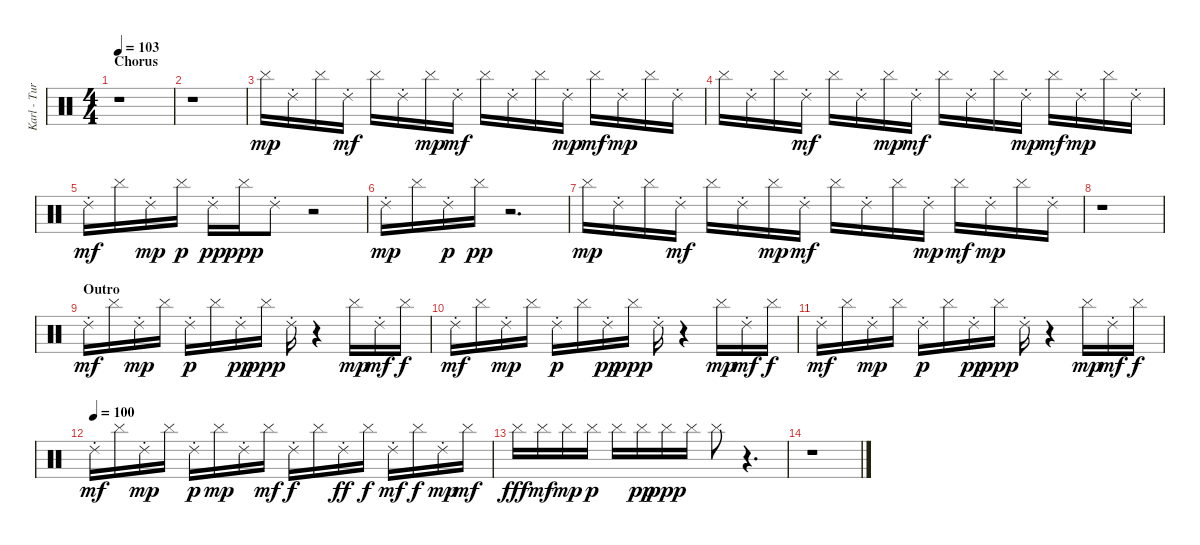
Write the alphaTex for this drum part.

\track ("Karl - Turntables" "Karl - Tur") {instrument percussion}
\staff {score}
\articulation defaults
\ts (4 4)
\section ("" "Chorus")
\tempo 103
\clef neutral
\ks c
r.1{dy p} |
r.1 |
"Cymbal (hit)".16{dy mp} "Ride (choke) 2".16 "Cymbal (hit)".16 "Ride (choke) 2".16{dy mf} "Cymbal (hit)".16 "Ride (choke) 2".16 "Cymbal (hit)".16{dy mp} "Ride (choke) 2".16{dy mf} "Cymbal (hit)".16 "Ride (choke) 2".16 "Cymbal (hit)".16 "Ride (choke) 2".16{dy mp} "Cymbal (hit)".16{dy mf} "Ride (choke) 2".16{dy mp} "Cymbal (hit)".16 "Ride (choke) 2".16 |
"Cymbal (hit)".16 "Ride (choke) 2".16 "Cymbal (hit)".16 "Ride (choke) 2".16{dy mf} "Cymbal (hit)".16 "Ride (choke) 2".16 "Cymbal (hit)".16{dy mp} "Ride (choke) 2".16{dy mf} "Cymbal (hit)".16 "Ride (choke) 2".16 "Cymbal (hit)".16 "Ride (choke) 2".16{dy mp} "Cymbal (hit)".16{dy mf} "Ride (choke) 2".16{dy mp} "Cymbal (hit)".16 "Ride (choke) 2".16 |
"Ride (choke) 2".16{dy mf} "Cymbal (hit)".16 "Ride (choke) 2".16{dy mp} "Cymbal (hit)".16{dy p} "Ride (choke) 2".16{dy pp} "Cymbal (hit)".16{dy ppp} "Ride (choke) 2".8 r.2 |
"Ride (choke) 2".16{dy mp} "Cymbal (hit)".16 "Ride (choke) 2".16{dy p} "Cymbal (hit)".16{dy pp} r.2{d} |
"Cymbal (hit)".16{dy mp} "Ride (choke) 2".16 "Cymbal (hit)".16 "Ride (choke) 2".16{dy mf} "Cymbal (hit)".16 "Ride (choke) 2".16 "Cymbal (hit)".16{dy mp} "Ride (choke) 2".16{dy mf} "Cymbal (hit)".16 "Ride (choke) 2".16 "Cymbal (hit)".16 "Ride (choke) 2".16{dy mp} "Cymbal (hit)".16{dy mf} "Ride (choke) 2".16{dy mp} "Cymbal (hit)".16 "Ride (choke) 2".16 |
r.1 |
\section ("" "Outro")
"Ride (choke) 2".16{dy mf} "Cymbal (hit)".16 "Ride (choke) 2".16{dy mp} "Cymbal (hit)".16 "Ride (choke) 2".16{dy p} "Cymbal (hit)".16 "Ride (choke) 2".16{dy pp} "Cymbal (hit)".16{dy ppp} "Ride (choke) 2".16 r.4 "Cymbal (hit)".16{dy mp} "Ride (choke) 2".16{dy mf} "Cymbal (hit)".16{dy f} |
"Ride (choke) 2".16{dy mf} "Cymbal (hit)".16 "Ride (choke) 2".16{dy mp} "Cymbal (hit)".16 "Ride (choke) 2".16{dy p} "Cymbal (hit)".16 "Ride (choke) 2".16{dy pp} "Cymbal (hit)".16{dy ppp} "Ride (choke) 2".16 r.4 "Cymbal (hit)".16{dy mp} "Ride (choke) 2".16{dy mf} "Cymbal (hit)".16{dy f} |
"Ride (choke) 2".16{dy mf} "Cymbal (hit)".16 "Ride (choke) 2".16{dy mp} "Cymbal (hit)".16 "Ride (choke) 2".16{dy p} "Cymbal (hit)".16 "Ride (choke) 2".16{dy pp} "Cymbal (hit)".16{dy ppp} "Ride (choke) 2".16 r.4 "Cymbal (hit)".16{dy mp} "Ride (choke) 2".16{dy mf} "Cymbal (hit)".16{dy f} |
\tempo (100)
"Ride (choke) 2".16{dy mf} "Cymbal (hit)".16 "Ride (choke) 2".16{dy mp} "Cymbal (hit)".16 "Ride (choke) 2".16{dy p} "Cymbal (hit)".16{dy mp} "Ride (choke) 2".16 "Cymbal (hit)".16{dy mf} "Ride (choke) 2".16{dy f} "Cymbal (hit)".16 "Ride (choke) 2".16{dy ff} "Cymbal (hit)".16{dy f} "Ride (choke) 2".16{dy mf} "Cymbal (hit)".16{dy f} "Ride (choke) 2".16{dy mp} "Cymbal (hit)".16{dy mf} |
"Cymbal (hit)".16{dy fff} "Cymbal (hit)".16{dy mf} "Cymbal (hit)".16{dy mp} "Cymbal (hit)".16{dy p} "Cymbal (hit)".16 "Cymbal (hit)".16{dy pp} "Cymbal (hit)".16{dy ppp} "Cymbal (hit)".16 "Cymbal (hit)".8 r.4{d} |
r.1
